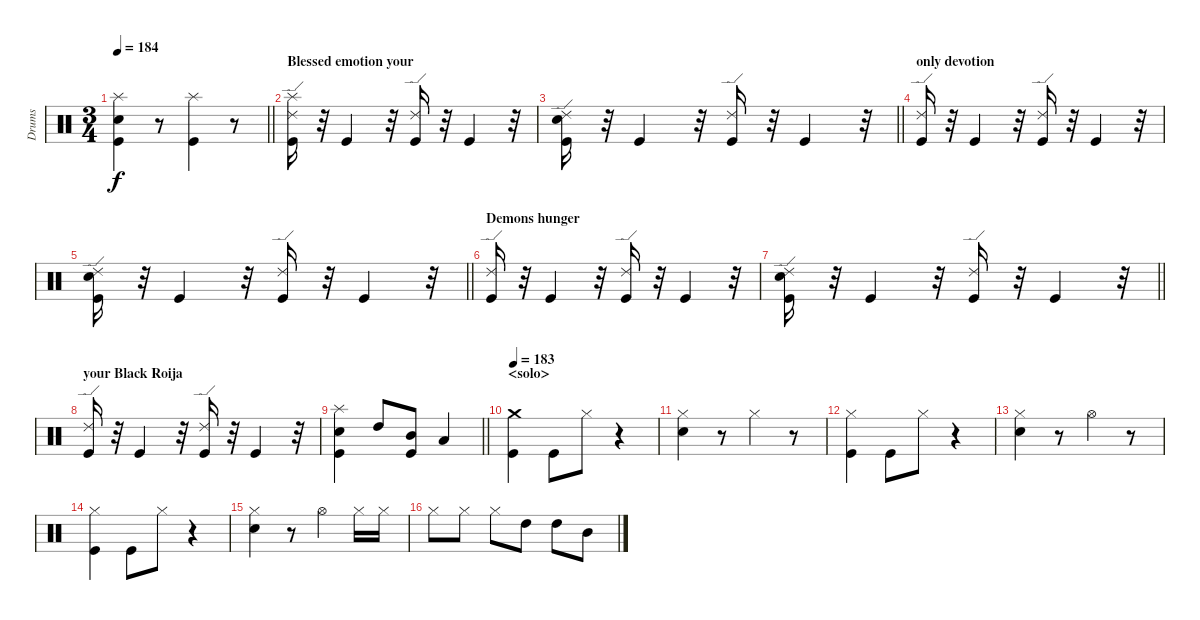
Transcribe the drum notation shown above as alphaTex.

\track ("Drums" "Drums") {instrument percussion}
\staff {score}
\articulation defaults
\ts (3 4)
\tempo 184
\clef neutral
\barLineRight lightlight
\ks c
("Splash (hit)" "Snare (hit) 2" "Kick (hit)").4{dy f} r.8 ("Splash (hit)" "Kick (hit)").4 r.8 |
\section ("" "Blessed emotion your ")
("Splash (hit)" "Ride (edge) 2" "Kick (hit)").16 r.32 "Kick (hit)".4 r.32 ("Ride (edge) 2" "Kick (hit)").16 r.32 "Kick (hit)".4 r.32 |
\barLineRight lightlight
("Ride (edge) 2" "Snare (hit) 2" "Kick (hit)").16 r.32 "Kick (hit)".4 r.32 ("Ride (edge) 2" "Kick (hit)").16 r.32 "Kick (hit)".4 r.32 |
\section ("" "only devotion")
("Ride (edge) 2" "Kick (hit)").16 r.32 "Kick (hit)".4 r.32 ("Ride (edge) 2" "Kick (hit)").16 r.32 "Kick (hit)".4 r.32 |
\barLineRight lightlight
("Ride (edge) 2" "Snare (hit) 2" "Kick (hit)").16 r.32 "Kick (hit)".4 r.32 ("Ride (edge) 2" "Kick (hit)").16 r.32 "Kick (hit)".4 r.32 |
\section ("" "Demons hunger ")
("Ride (edge) 2" "Kick (hit)").16 r.32 "Kick (hit)".4 r.32 ("Ride (edge) 2" "Kick (hit)").16 r.32 "Kick (hit)".4 r.32 |
\barLineRight lightlight
("Ride (edge) 2" "Snare (hit) 2" "Kick (hit)").16 r.32 "Kick (hit)".4 r.32 ("Ride (edge) 2" "Kick (hit)").16 r.32 "Kick (hit)".4 r.32 |
\section ("" "your Black Roija")
("Ride (edge) 2" "Kick (hit)").16 r.32 "Kick (hit)".4 r.32 ("Ride (edge) 2" "Kick (hit)").16 r.32 "Kick (hit)".4 r.32 |
\barLineRight lightlight
("Splash (hit)" "Snare (hit) 2" "Kick (hit)").4 "High Tom (hit)".8 ("Mid Tom (hit)" "Kick (hit)").8 "Low Tom (hit)".4 |
\section ("" "<solo>")
\tempo 183
("Crash medium (hit)" "Kick (hit)").4 "Kick (hit)".8 "Hi-Hat (closed)".8 r.4 |
("Hi-Hat (closed)" "Snare (hit) 2").4 r.8 "Hi-Hat (closed)".4 r.8 |
("Hi-Hat (closed)" "Kick (hit)").4 "Kick (hit)".8 "Hi-Hat (closed)".8 r.4 |
("Hi-Hat (closed)" "Snare (hit) 2").4 r.8 "Hi-Hat (open)".4 r.8 |
("Hi-Hat (closed)" "Kick (hit)").4 "Kick (hit)".8 "Hi-Hat (closed)".8 r.4 |
("Hi-Hat (closed)" "Snare (hit) 2").4 r.8 "Hi-Hat (open)".4 "Hi-Hat (closed)".16 "Hi-Hat (closed)".16 |
"Hi-Hat (closed)".8 "Hi-Hat (closed)".8 "Hi-Hat (closed)".8 "High Tom (hit)".8 "High Tom (hit)".8 "Mid Tom (hit)".8
